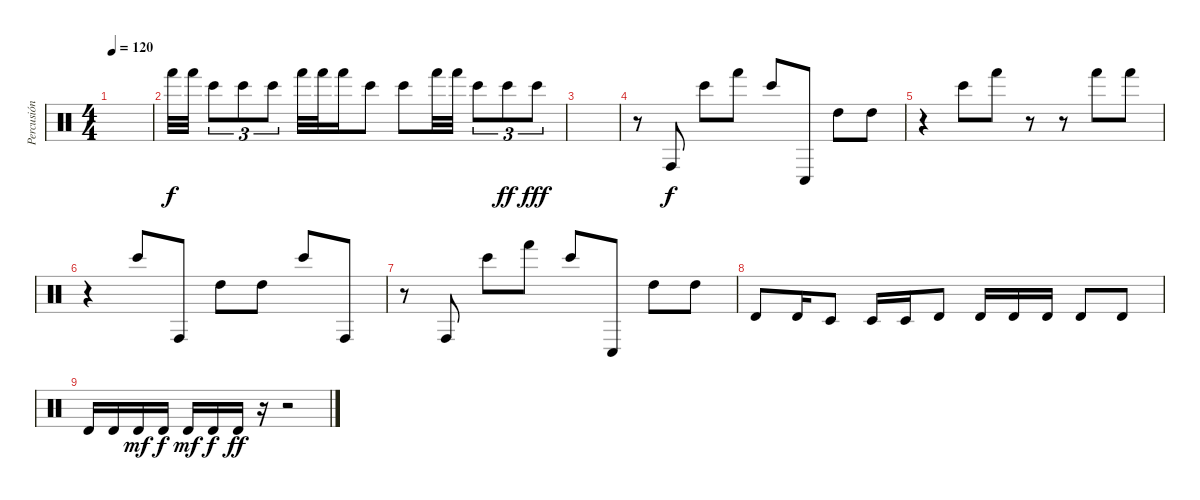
\track ("Percusión" "Percusión") {instrument percussion}
\staff {score}
\articulation defaults
\ts (4 4)
\tempo 120
\clef neutral
\ks c
|
"Hand (hit)".32 "Hand (hit)".32 "Bongo High (hit)".8{tu (3 2)} "Bongo High (hit)".8{tu (3 2)} "Bongo High (hit)".8{tu (3 2)} "Hand (hit)".32 "Hand (hit)".32 "Hand (hit)".16 "Bongo High (hit)".8 "Bongo High (hit)".8 "Hand (hit)".32 "Hand (hit)".32 "Bongo High (hit)".8{tu (3 2)} "Bongo High (hit)".8{tu (3 2) dy ff} "Bongo High (hit)".8{tu (3 2) dy fff} |
|
r.8 "Conga high (hit)".8{dy f} "Bongo High (hit)".8 "Hand (hit)".8 "Bongo High (hit)".8 "Conga low (hit)".8 "High Tom (hit)".8 "High Tom (hit)".8 |
r.4 "Bongo High (hit)".8 "Hand (hit)".8 r.8 r.8 "Hand (hit)".8 "Hand (hit)".8 |
r.4 "Bongo High (hit)".8 "Conga high (hit)".8 "High Tom (hit)".8 "High Tom (hit)".8 "Bongo High (hit)".8 "Conga high (hit)".8 |
r.8 "Conga high (hit)".8 "Bongo High (hit)".8 "Hand (hit)".8 "Bongo High (hit)".8 "Conga low (hit)".8 "High Tom (hit)".8 "High Tom (hit)".8 |
"Timbale high (hit)".8 "Timbale high (hit)".16 "Timbale low (hit)".8 "Timbale low (hit)".16 "Timbale low (hit)".16 "Timbale high (hit)".8 "Timbale high (hit)".16 "Timbale high (hit)".16 "Timbale high (hit)".16 "Timbale high (hit)".8 "Timbale high (hit)".8 |
"Timbale high (hit)".16 "Timbale high (hit)".16 "Timbale high (hit)".16{dy mf} "Timbale high (hit)".16{dy f} "Timbale high (hit)".16{dy mf} "Timbale high (hit)".16{dy f} "Timbale high (hit)".16{dy ff} r.16 r.2
